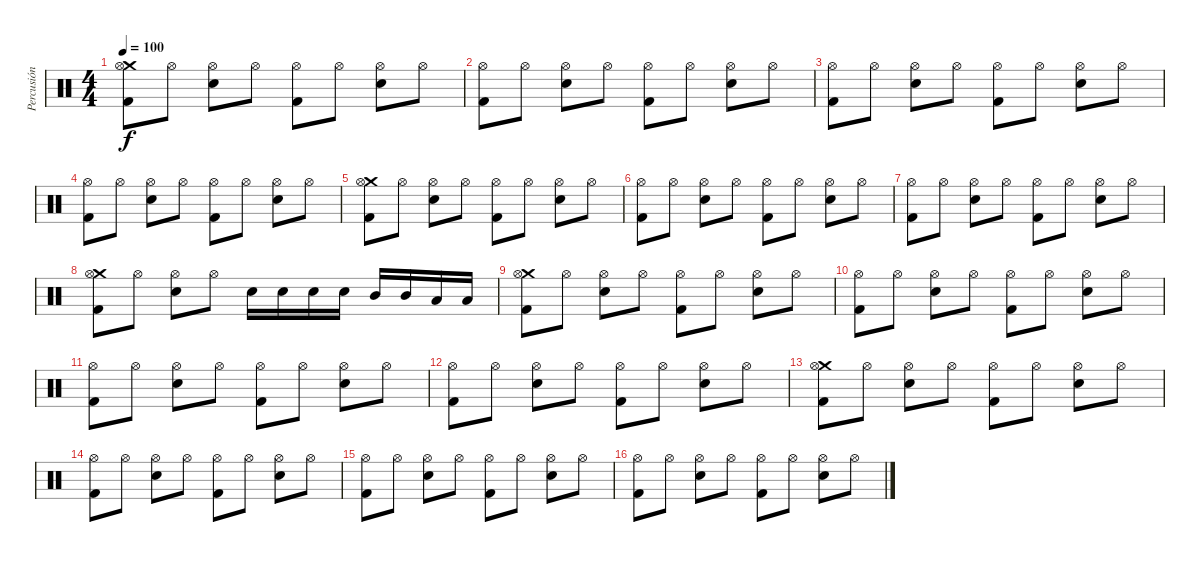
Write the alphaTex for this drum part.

\track ("Percusión" "Percusión") {instrument percussion}
\staff {score}
\articulation defaults
\ts (4 4)
\tempo 100
\clef neutral
\ks c
("Crash medium (hit)" "Hi-Hat (open)" "Kick (hit) 2").8{dy f} "Hi-Hat (open)".8 ("Hi-Hat (open)" "Snare (hit) 2").8 "Hi-Hat (open)".8 ("Hi-Hat (open)" "Kick (hit) 2").8 "Hi-Hat (open)".8 ("Hi-Hat (open)" "Snare (hit) 2").8 "Hi-Hat (open)".8 |
("Hi-Hat (open)" "Kick (hit) 2").8 "Hi-Hat (open)".8 ("Hi-Hat (open)" "Snare (hit) 2").8 "Hi-Hat (open)".8 ("Hi-Hat (open)" "Kick (hit) 2").8 "Hi-Hat (open)".8 ("Hi-Hat (open)" "Snare (hit) 2").8 "Hi-Hat (open)".8 |
("Hi-Hat (open)" "Kick (hit) 2").8 "Hi-Hat (open)".8 ("Hi-Hat (open)" "Snare (hit) 2").8 "Hi-Hat (open)".8 ("Hi-Hat (open)" "Kick (hit) 2").8 "Hi-Hat (open)".8 ("Hi-Hat (open)" "Snare (hit) 2").8 "Hi-Hat (open)".8 |
("Hi-Hat (open)" "Kick (hit) 2").8 "Hi-Hat (open)".8 ("Hi-Hat (open)" "Snare (hit) 2").8 "Hi-Hat (open)".8 ("Hi-Hat (open)" "Kick (hit) 2").8 "Hi-Hat (open)".8 ("Hi-Hat (open)" "Snare (hit) 2").8 "Hi-Hat (open)".8 |
("Crash medium (hit)" "Hi-Hat (open)" "Kick (hit) 2").8 "Hi-Hat (open)".8 ("Hi-Hat (open)" "Snare (hit) 2").8 "Hi-Hat (open)".8 ("Hi-Hat (open)" "Kick (hit) 2").8 "Hi-Hat (open)".8 ("Hi-Hat (open)" "Snare (hit) 2").8 "Hi-Hat (open)".8 |
("Hi-Hat (open)" "Kick (hit) 2").8 "Hi-Hat (open)".8 ("Hi-Hat (open)" "Snare (hit) 2").8 "Hi-Hat (open)".8 ("Hi-Hat (open)" "Kick (hit) 2").8 "Hi-Hat (open)".8 ("Hi-Hat (open)" "Snare (hit) 2").8 "Hi-Hat (open)".8 |
("Hi-Hat (open)" "Kick (hit) 2").8 "Hi-Hat (open)".8 ("Hi-Hat (open)" "Snare (hit) 2").8 "Hi-Hat (open)".8 ("Hi-Hat (open)" "Kick (hit) 2").8 "Hi-Hat (open)".8 ("Hi-Hat (open)" "Snare (hit) 2").8 "Hi-Hat (open)".8 |
("Crash medium (hit)" "Hi-Hat (open)" "Kick (hit) 2").8 "Hi-Hat (open)".8 ("Hi-Hat (open)" "Snare (hit) 2").8 "Hi-Hat (open)".8 "Snare (hit) 2".16 "Snare (hit) 2".16 "Snare (hit) 2".16 "Snare (hit) 2".16 "Mid Tom (hit)".16 "Mid Tom (hit)".16 "Low Tom (hit)".16 "Low Tom (hit)".16 |
("Crash medium (hit)" "Hi-Hat (open)" "Kick (hit) 2").8 "Hi-Hat (open)".8 ("Hi-Hat (open)" "Snare (hit) 2").8 "Hi-Hat (open)".8 ("Hi-Hat (open)" "Kick (hit) 2").8 "Hi-Hat (open)".8 ("Hi-Hat (open)" "Snare (hit) 2").8 "Hi-Hat (open)".8 |
("Hi-Hat (open)" "Kick (hit) 2").8 "Hi-Hat (open)".8 ("Hi-Hat (open)" "Snare (hit) 2").8 "Hi-Hat (open)".8 ("Hi-Hat (open)" "Kick (hit) 2").8 "Hi-Hat (open)".8 ("Hi-Hat (open)" "Snare (hit) 2").8 "Hi-Hat (open)".8 |
("Hi-Hat (open)" "Kick (hit) 2").8 "Hi-Hat (open)".8 ("Hi-Hat (open)" "Snare (hit) 2").8 "Hi-Hat (open)".8 ("Hi-Hat (open)" "Kick (hit) 2").8 "Hi-Hat (open)".8 ("Hi-Hat (open)" "Snare (hit) 2").8 "Hi-Hat (open)".8 |
("Hi-Hat (open)" "Kick (hit) 2").8 "Hi-Hat (open)".8 ("Hi-Hat (open)" "Snare (hit) 2").8 "Hi-Hat (open)".8 ("Hi-Hat (open)" "Kick (hit) 2").8 "Hi-Hat (open)".8 ("Hi-Hat (open)" "Snare (hit) 2").8 "Hi-Hat (open)".8 |
("Crash medium (hit)" "Hi-Hat (open)" "Kick (hit) 2").8 "Hi-Hat (open)".8 ("Hi-Hat (open)" "Snare (hit) 2").8 "Hi-Hat (open)".8 ("Hi-Hat (open)" "Kick (hit) 2").8 "Hi-Hat (open)".8 ("Hi-Hat (open)" "Snare (hit) 2").8 "Hi-Hat (open)".8 |
("Hi-Hat (open)" "Kick (hit) 2").8 "Hi-Hat (open)".8 ("Hi-Hat (open)" "Snare (hit) 2").8 "Hi-Hat (open)".8 ("Hi-Hat (open)" "Kick (hit) 2").8 "Hi-Hat (open)".8 ("Hi-Hat (open)" "Snare (hit) 2").8 "Hi-Hat (open)".8 |
("Hi-Hat (open)" "Kick (hit) 2").8 "Hi-Hat (open)".8 ("Hi-Hat (open)" "Snare (hit) 2").8 "Hi-Hat (open)".8 ("Hi-Hat (open)" "Kick (hit) 2").8 "Hi-Hat (open)".8 ("Hi-Hat (open)" "Snare (hit) 2").8 "Hi-Hat (open)".8 |
("Hi-Hat (open)" "Kick (hit) 2").8 "Hi-Hat (open)".8 ("Hi-Hat (open)" "Snare (hit) 2").8 "Hi-Hat (open)".8 ("Hi-Hat (open)" "Kick (hit) 2").8 "Hi-Hat (open)".8 ("Hi-Hat (open)" "Snare (hit) 2").8 "Hi-Hat (open)".8
